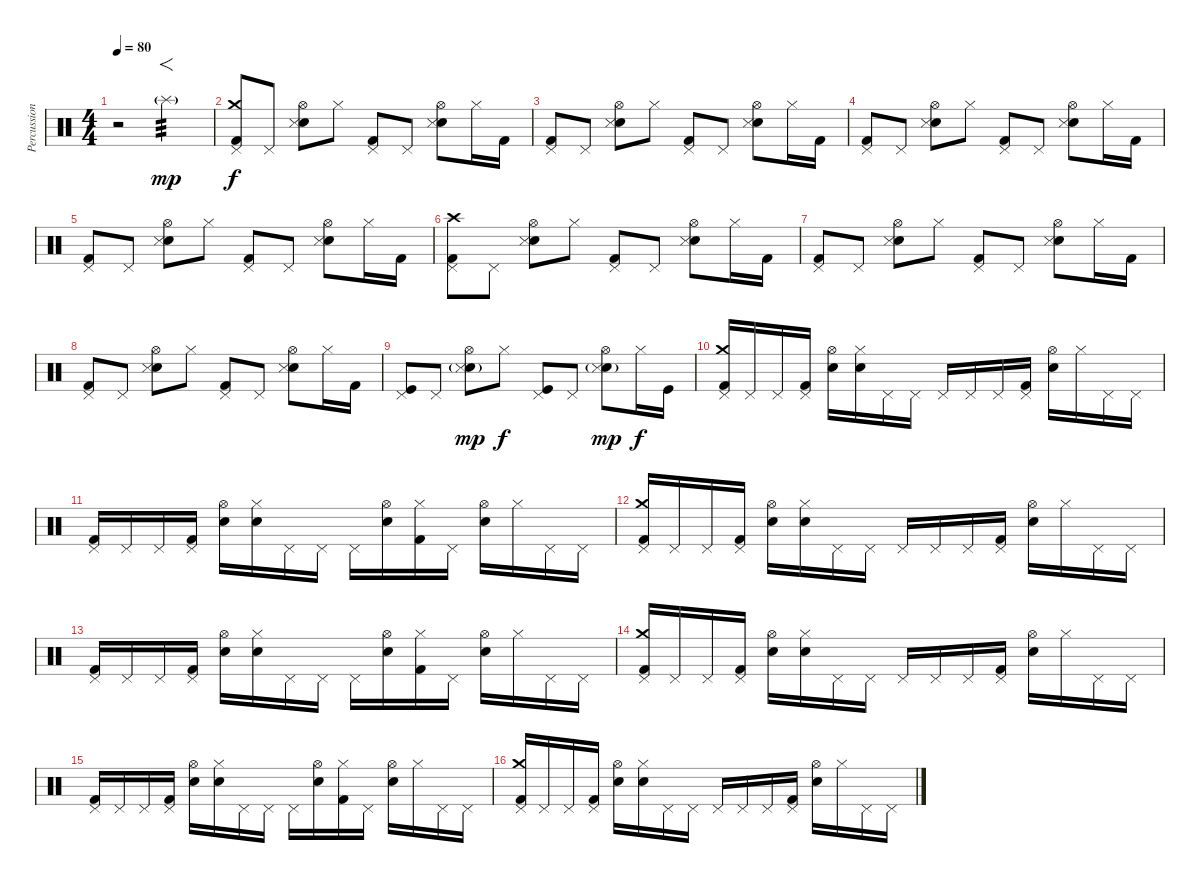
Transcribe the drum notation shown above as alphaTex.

\track ("Percussions" "Percussion") {instrument percussion}
\staff {score}
\articulation defaults
\ts (4 4)
\tempo 80
\clef neutral
\ks c
r.2{dy f} "Splash (hit)"{g}.2{f tp 3 dy mp} |
("Pedal Hi-Hat (hit)" "Crash medium (hit)" "Kick (hit) 2").8{dy f} "Pedal Hi-Hat (hit)".8 ("Hi-Hat (open)" "Electric Snare (hit)" "Snare (side stick) 3").8 "Hi-Hat (closed)".8 ("Pedal Hi-Hat (hit)" "Kick (hit) 2").8 "Pedal Hi-Hat (hit)".8 ("Hi-Hat (open)" "Electric Snare (hit)" "Snare (side stick) 3").8 "Hi-Hat (closed)".16 "Kick (hit) 2".16 |
("Pedal Hi-Hat (hit)" "Kick (hit) 2").8 "Pedal Hi-Hat (hit)".8 ("Hi-Hat (open)" "Electric Snare (hit)" "Snare (side stick) 3").8 "Hi-Hat (closed)".8 ("Pedal Hi-Hat (hit)" "Kick (hit) 2").8 "Pedal Hi-Hat (hit)".8 ("Hi-Hat (open)" "Electric Snare (hit)" "Snare (side stick) 3").8 "Hi-Hat (closed)".16 "Kick (hit) 2".16 |
("Pedal Hi-Hat (hit)" "Kick (hit) 2").8 "Pedal Hi-Hat (hit)".8 ("Hi-Hat (open)" "Electric Snare (hit)" "Snare (side stick) 3").8 "Hi-Hat (closed)".8 ("Pedal Hi-Hat (hit)" "Kick (hit) 2").8 "Pedal Hi-Hat (hit)".8 ("Hi-Hat (open)" "Electric Snare (hit)" "Snare (side stick) 3").8 "Hi-Hat (closed)".16 "Kick (hit) 2".16 |
("Pedal Hi-Hat (hit)" "Kick (hit) 2").8 "Pedal Hi-Hat (hit)".8 ("Hi-Hat (open)" "Electric Snare (hit)" "Snare (side stick) 3").8 "Hi-Hat (closed)".8 ("Pedal Hi-Hat (hit)" "Kick (hit) 2").8 "Pedal Hi-Hat (hit)".8 ("Hi-Hat (open)" "Electric Snare (hit)" "Snare (side stick) 3").8 "Hi-Hat (closed)".16 "Kick (hit) 2".16 |
("Pedal Hi-Hat (hit)" "Crash high (hit)" "Kick (hit) 2").8 "Pedal Hi-Hat (hit)".8 ("Hi-Hat (open)" "Electric Snare (hit)" "Snare (side stick) 3").8 "Hi-Hat (closed)".8 ("Pedal Hi-Hat (hit)" "Kick (hit) 2").8 "Pedal Hi-Hat (hit)".8 ("Hi-Hat (open)" "Electric Snare (hit)" "Snare (side stick) 3").8 "Hi-Hat (closed)".16 "Kick (hit) 2".16 |
("Pedal Hi-Hat (hit)" "Kick (hit) 2").8 "Pedal Hi-Hat (hit)".8 ("Hi-Hat (open)" "Electric Snare (hit)" "Snare (side stick) 3").8 "Hi-Hat (closed)".8 ("Pedal Hi-Hat (hit)" "Kick (hit) 2").8 "Pedal Hi-Hat (hit)".8 ("Hi-Hat (open)" "Electric Snare (hit)" "Snare (side stick) 3").8 "Hi-Hat (closed)".16 "Kick (hit) 2".16 |
("Pedal Hi-Hat (hit)" "Kick (hit) 2").8 "Pedal Hi-Hat (hit)".8 ("Hi-Hat (open)" "Electric Snare (hit)" "Snare (side stick) 3").8 "Hi-Hat (closed)".8 ("Pedal Hi-Hat (hit)" "Kick (hit) 2").8 "Pedal Hi-Hat (hit)".8 ("Hi-Hat (open)" "Electric Snare (hit)" "Snare (side stick) 3").8 "Hi-Hat (closed)".16 "Kick (hit) 2".16 |
("Pedal Hi-Hat (hit)" "Kick (hit)").8 "Pedal Hi-Hat (hit)".8 ("Hi-Hat (open)" "Electric Snare (hit)"{g} "Snare (side stick) 3").8{dy mp} "Hi-Hat (closed)".8{dy f} ("Pedal Hi-Hat (hit)" "Kick (hit)").8 "Pedal Hi-Hat (hit)".8 ("Hi-Hat (open)" "Electric Snare (hit)"{g} "Snare (side stick) 3").8{dy mp} "Hi-Hat (closed)".16{dy f} "Kick (hit)".16 |
("Pedal Hi-Hat (hit)" "Crash medium (hit)" "Kick (hit) 2").16 "Pedal Hi-Hat (hit)".16 "Pedal Hi-Hat (hit)".16 ("Pedal Hi-Hat (hit)" "Kick (hit) 2").16 ("Hi-Hat (open)" "Electric Snare (hit)").16 ("Hi-Hat (closed)" "Electric Snare (hit)").16 "Pedal Hi-Hat (hit)".16 "Pedal Hi-Hat (hit)".16 "Pedal Hi-Hat (hit)".16 "Pedal Hi-Hat (hit)".16 "Pedal Hi-Hat (hit)".16 ("Pedal Hi-Hat (hit)" "Kick (hit) 2").16 ("Hi-Hat (open)" "Electric Snare (hit)").16 "Hi-Hat (closed)".16 "Pedal Hi-Hat (hit)".16 "Pedal Hi-Hat (hit)".16 |
("Pedal Hi-Hat (hit)" "Kick (hit) 2").16 "Pedal Hi-Hat (hit)".16 "Pedal Hi-Hat (hit)".16 ("Pedal Hi-Hat (hit)" "Kick (hit) 2").16 ("Hi-Hat (open)" "Electric Snare (hit)").16 ("Hi-Hat (closed)" "Electric Snare (hit)").16 "Pedal Hi-Hat (hit)".16 "Pedal Hi-Hat (hit)".16 "Pedal Hi-Hat (hit)".16 ("Hi-Hat (open)" "Electric Snare (hit)").16 ("Hi-Hat (closed)" "Kick (hit) 2").16 "Pedal Hi-Hat (hit)".16 ("Hi-Hat (open)" "Electric Snare (hit)").16 "Hi-Hat (closed)".16 "Pedal Hi-Hat (hit)".16 "Pedal Hi-Hat (hit)".16 |
("Pedal Hi-Hat (hit)" "Crash medium (hit)" "Kick (hit) 2").16 "Pedal Hi-Hat (hit)".16 "Pedal Hi-Hat (hit)".16 ("Pedal Hi-Hat (hit)" "Kick (hit) 2").16 ("Hi-Hat (open)" "Electric Snare (hit)").16 ("Hi-Hat (closed)" "Electric Snare (hit)").16 "Pedal Hi-Hat (hit)".16 "Pedal Hi-Hat (hit)".16 "Pedal Hi-Hat (hit)".16 "Pedal Hi-Hat (hit)".16 "Pedal Hi-Hat (hit)".16 ("Pedal Hi-Hat (hit)" "Kick (hit) 2").16 ("Hi-Hat (open)" "Electric Snare (hit)").16 "Hi-Hat (closed)".16 "Pedal Hi-Hat (hit)".16 "Pedal Hi-Hat (hit)".16 |
("Pedal Hi-Hat (hit)" "Kick (hit) 2").16 "Pedal Hi-Hat (hit)".16 "Pedal Hi-Hat (hit)".16 ("Pedal Hi-Hat (hit)" "Kick (hit) 2").16 ("Hi-Hat (open)" "Electric Snare (hit)").16 ("Hi-Hat (closed)" "Electric Snare (hit)").16 "Pedal Hi-Hat (hit)".16 "Pedal Hi-Hat (hit)".16 "Pedal Hi-Hat (hit)".16 ("Hi-Hat (open)" "Electric Snare (hit)").16 ("Hi-Hat (closed)" "Kick (hit) 2").16 "Pedal Hi-Hat (hit)".16 ("Hi-Hat (open)" "Electric Snare (hit)").16 "Hi-Hat (closed)".16 "Pedal Hi-Hat (hit)".16 "Pedal Hi-Hat (hit)".16 |
("Pedal Hi-Hat (hit)" "Crash medium (hit)" "Kick (hit) 2").16 "Pedal Hi-Hat (hit)".16 "Pedal Hi-Hat (hit)".16 ("Pedal Hi-Hat (hit)" "Kick (hit) 2").16 ("Hi-Hat (open)" "Electric Snare (hit)").16 ("Hi-Hat (closed)" "Electric Snare (hit)").16 "Pedal Hi-Hat (hit)".16 "Pedal Hi-Hat (hit)".16 "Pedal Hi-Hat (hit)".16 "Pedal Hi-Hat (hit)".16 "Pedal Hi-Hat (hit)".16 ("Pedal Hi-Hat (hit)" "Kick (hit) 2").16 ("Hi-Hat (open)" "Electric Snare (hit)").16 "Hi-Hat (closed)".16 "Pedal Hi-Hat (hit)".16 "Pedal Hi-Hat (hit)".16 |
("Pedal Hi-Hat (hit)" "Kick (hit) 2").16 "Pedal Hi-Hat (hit)".16 "Pedal Hi-Hat (hit)".16 ("Pedal Hi-Hat (hit)" "Kick (hit) 2").16 ("Hi-Hat (open)" "Electric Snare (hit)").16 ("Hi-Hat (closed)" "Electric Snare (hit)").16 "Pedal Hi-Hat (hit)".16 "Pedal Hi-Hat (hit)".16 "Pedal Hi-Hat (hit)".16 ("Hi-Hat (open)" "Electric Snare (hit)").16 ("Hi-Hat (closed)" "Kick (hit) 2").16 "Pedal Hi-Hat (hit)".16 ("Hi-Hat (open)" "Electric Snare (hit)").16 "Hi-Hat (closed)".16 "Pedal Hi-Hat (hit)".16 "Pedal Hi-Hat (hit)".16 |
("Pedal Hi-Hat (hit)" "Crash medium (hit)" "Kick (hit) 2").16 "Pedal Hi-Hat (hit)".16 "Pedal Hi-Hat (hit)".16 ("Pedal Hi-Hat (hit)" "Kick (hit) 2").16 ("Hi-Hat (open)" "Electric Snare (hit)").16 ("Hi-Hat (closed)" "Electric Snare (hit)").16 "Pedal Hi-Hat (hit)".16 "Pedal Hi-Hat (hit)".16 "Pedal Hi-Hat (hit)".16 "Pedal Hi-Hat (hit)".16 "Pedal Hi-Hat (hit)".16 ("Pedal Hi-Hat (hit)" "Kick (hit) 2").16 ("Hi-Hat (open)" "Electric Snare (hit)").16 "Hi-Hat (closed)".16 "Pedal Hi-Hat (hit)".16 "Pedal Hi-Hat (hit)".16
